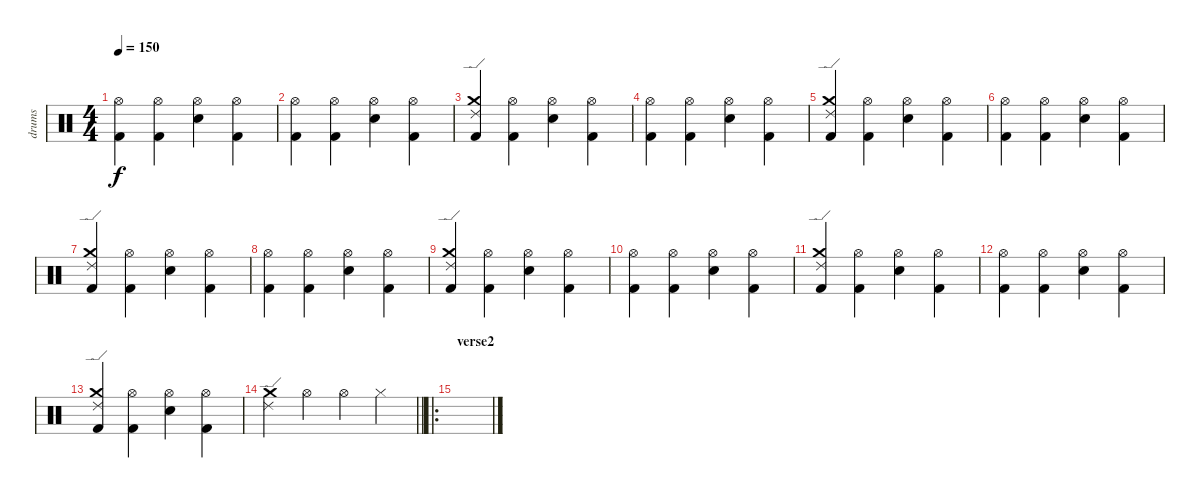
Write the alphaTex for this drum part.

\track ("drums" "drums") {instrument percussion}
\staff {score}
\articulation defaults
\ts (4 4)
\tempo 150
\clef neutral
\ks c
("Hi-Hat (open)" "Kick (hit) 2").4{dy f} ("Hi-Hat (open)" "Kick (hit) 2").4 ("Hi-Hat (open)" "Electric Snare (hit)").4 ("Hi-Hat (open)" "Kick (hit) 2").4 |
("Hi-Hat (open)" "Kick (hit) 2").4 ("Hi-Hat (open)" "Kick (hit) 2").4 ("Hi-Hat (open)" "Electric Snare (hit)").4 ("Hi-Hat (open)" "Kick (hit) 2").4 |
("Kick (hit) 2" "Crash medium (hit)" "Ride (edge) 2").4 ("Hi-Hat (open)" "Kick (hit) 2").4 ("Hi-Hat (open)" "Electric Snare (hit)").4 ("Hi-Hat (open)" "Kick (hit) 2").4 |
("Hi-Hat (open)" "Kick (hit) 2").4 ("Hi-Hat (open)" "Kick (hit) 2").4 ("Hi-Hat (open)" "Electric Snare (hit)").4 ("Hi-Hat (open)" "Kick (hit) 2").4 |
("Kick (hit) 2" "Crash medium (hit)" "Ride (edge) 2").4 ("Hi-Hat (open)" "Kick (hit) 2").4 ("Hi-Hat (open)" "Electric Snare (hit)").4 ("Hi-Hat (open)" "Kick (hit) 2").4 |
("Hi-Hat (open)" "Kick (hit) 2").4 ("Hi-Hat (open)" "Kick (hit) 2").4 ("Hi-Hat (open)" "Electric Snare (hit)").4 ("Hi-Hat (open)" "Kick (hit) 2").4 |
("Kick (hit) 2" "Crash medium (hit)" "Ride (edge) 2").4 ("Hi-Hat (open)" "Kick (hit) 2").4 ("Hi-Hat (open)" "Electric Snare (hit)").4 ("Hi-Hat (open)" "Kick (hit) 2").4 |
("Hi-Hat (open)" "Kick (hit) 2").4 ("Hi-Hat (open)" "Kick (hit) 2").4 ("Hi-Hat (open)" "Electric Snare (hit)").4 ("Hi-Hat (open)" "Kick (hit) 2").4 |
("Kick (hit) 2" "Crash medium (hit)" "Ride (edge) 2").4 ("Hi-Hat (open)" "Kick (hit) 2").4 ("Hi-Hat (open)" "Electric Snare (hit)").4 ("Hi-Hat (open)" "Kick (hit) 2").4 |
("Hi-Hat (open)" "Kick (hit) 2").4 ("Hi-Hat (open)" "Kick (hit) 2").4 ("Hi-Hat (open)" "Electric Snare (hit)").4 ("Hi-Hat (open)" "Kick (hit) 2").4 |
("Kick (hit) 2" "Crash medium (hit)" "Ride (edge) 2").4 ("Hi-Hat (open)" "Kick (hit) 2").4 ("Hi-Hat (open)" "Electric Snare (hit)").4 ("Hi-Hat (open)" "Kick (hit) 2").4 |
("Hi-Hat (open)" "Kick (hit) 2").4 ("Hi-Hat (open)" "Kick (hit) 2").4 ("Hi-Hat (open)" "Electric Snare (hit)").4 ("Hi-Hat (open)" "Kick (hit) 2").4 |
("Kick (hit) 2" "Crash medium (hit)" "Ride (edge) 2").4 ("Hi-Hat (open)" "Kick (hit) 2").4 ("Hi-Hat (open)" "Electric Snare (hit)").4 ("Hi-Hat (open)" "Kick (hit) 2").4 |
\barLineRight lightlight
("Crash medium (hit)" "Ride (edge) 2").4 "Hi-Hat (open)".4 "Hi-Hat (open)".4 "Hi-Hat (closed)".4 |
\ro
\section ("" "verse2")
